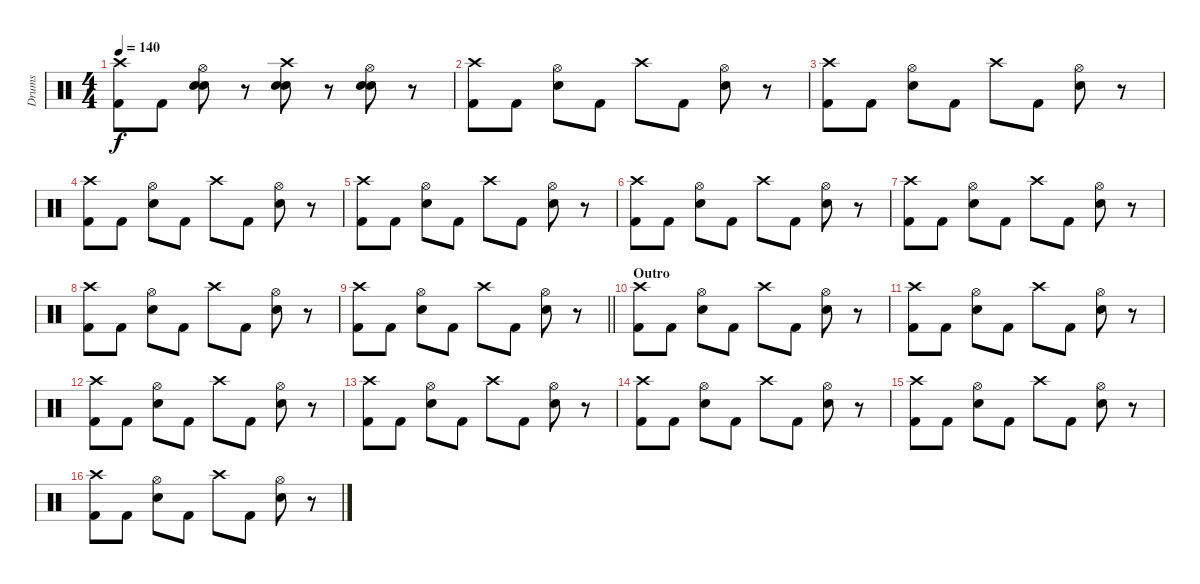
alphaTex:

\track ("Drums" "Drums") {instrument percussion bank 127}
\staff {score}
\articulation defaults
\ts (4 4)
\tempo 140
\clef neutral
\ks c
("Crash high (hit)" "Kick (hit) 2").8{dy f} "Kick (hit) 2".8 ("Hi-Hat (open)" "Electric Snare (hit)" "Electric Snare (hit)").8 r.8 ("Crash high (hit)" "Electric Snare (hit)" "Electric Snare (hit)").8 r.8 ("Hi-Hat (open)" "Electric Snare (hit)" "Electric Snare (hit)").8 r.8 |
("Crash high (hit)" "Kick (hit) 2").8 "Kick (hit) 2".8 ("Hi-Hat (open)" "Electric Snare (hit)").8 "Kick (hit) 2".8 "Crash high (hit)".8 "Kick (hit) 2".8 ("Hi-Hat (open)" "Electric Snare (hit)").8 r.8 |
("Crash high (hit)" "Kick (hit) 2").8 "Kick (hit) 2".8 ("Hi-Hat (open)" "Electric Snare (hit)").8 "Kick (hit) 2".8 "Crash high (hit)".8 "Kick (hit) 2".8 ("Hi-Hat (open)" "Electric Snare (hit)").8 r.8 |
("Crash high (hit)" "Kick (hit) 2").8 "Kick (hit) 2".8 ("Hi-Hat (open)" "Electric Snare (hit)").8 "Kick (hit) 2".8 "Crash high (hit)".8 "Kick (hit) 2".8 ("Hi-Hat (open)" "Electric Snare (hit)").8 r.8 |
("Crash high (hit)" "Kick (hit) 2").8 "Kick (hit) 2".8 ("Hi-Hat (open)" "Electric Snare (hit)").8 "Kick (hit) 2".8 "Crash high (hit)".8 "Kick (hit) 2".8 ("Hi-Hat (open)" "Electric Snare (hit)").8 r.8 |
("Crash high (hit)" "Kick (hit) 2").8 "Kick (hit) 2".8 ("Hi-Hat (open)" "Electric Snare (hit)").8 "Kick (hit) 2".8 "Crash high (hit)".8 "Kick (hit) 2".8 ("Hi-Hat (open)" "Electric Snare (hit)").8 r.8 |
("Crash high (hit)" "Kick (hit) 2").8 "Kick (hit) 2".8 ("Hi-Hat (open)" "Electric Snare (hit)").8 "Kick (hit) 2".8 "Crash high (hit)".8 "Kick (hit) 2".8 ("Hi-Hat (open)" "Electric Snare (hit)").8 r.8 |
("Crash high (hit)" "Kick (hit) 2").8 "Kick (hit) 2".8 ("Hi-Hat (open)" "Electric Snare (hit)").8 "Kick (hit) 2".8 "Crash high (hit)".8 "Kick (hit) 2".8 ("Hi-Hat (open)" "Electric Snare (hit)").8 r.8 |
\barLineRight lightlight
("Crash high (hit)" "Kick (hit) 2").8 "Kick (hit) 2".8 ("Hi-Hat (open)" "Electric Snare (hit)").8 "Kick (hit) 2".8 "Crash high (hit)".8 "Kick (hit) 2".8 ("Hi-Hat (open)" "Electric Snare (hit)").8 r.8 |
\section ("" "Outro")
("Crash high (hit)" "Kick (hit) 2").8 "Kick (hit) 2".8 ("Hi-Hat (open)" "Electric Snare (hit)").8 "Kick (hit) 2".8 "Crash high (hit)".8 "Kick (hit) 2".8 ("Hi-Hat (open)" "Electric Snare (hit)").8 r.8 |
("Crash high (hit)" "Kick (hit) 2").8 "Kick (hit) 2".8 ("Hi-Hat (open)" "Electric Snare (hit)").8 "Kick (hit) 2".8 "Crash high (hit)".8 "Kick (hit) 2".8 ("Hi-Hat (open)" "Electric Snare (hit)").8 r.8 |
("Crash high (hit)" "Kick (hit) 2").8 "Kick (hit) 2".8 ("Hi-Hat (open)" "Electric Snare (hit)").8 "Kick (hit) 2".8 "Crash high (hit)".8 "Kick (hit) 2".8 ("Hi-Hat (open)" "Electric Snare (hit)").8 r.8 |
("Crash high (hit)" "Kick (hit) 2").8 "Kick (hit) 2".8 ("Hi-Hat (open)" "Electric Snare (hit)").8 "Kick (hit) 2".8 "Crash high (hit)".8 "Kick (hit) 2".8 ("Hi-Hat (open)" "Electric Snare (hit)").8 r.8 |
("Crash high (hit)" "Kick (hit) 2").8 "Kick (hit) 2".8 ("Hi-Hat (open)" "Electric Snare (hit)").8 "Kick (hit) 2".8 "Crash high (hit)".8 "Kick (hit) 2".8 ("Hi-Hat (open)" "Electric Snare (hit)").8 r.8 |
("Crash high (hit)" "Kick (hit) 2").8 "Kick (hit) 2".8 ("Hi-Hat (open)" "Electric Snare (hit)").8 "Kick (hit) 2".8 "Crash high (hit)".8 "Kick (hit) 2".8 ("Hi-Hat (open)" "Electric Snare (hit)").8 r.8 |
("Crash high (hit)" "Kick (hit) 2").8 "Kick (hit) 2".8 ("Hi-Hat (open)" "Electric Snare (hit)").8 "Kick (hit) 2".8 "Crash high (hit)".8 "Kick (hit) 2".8 ("Hi-Hat (open)" "Electric Snare (hit)").8 r.8
